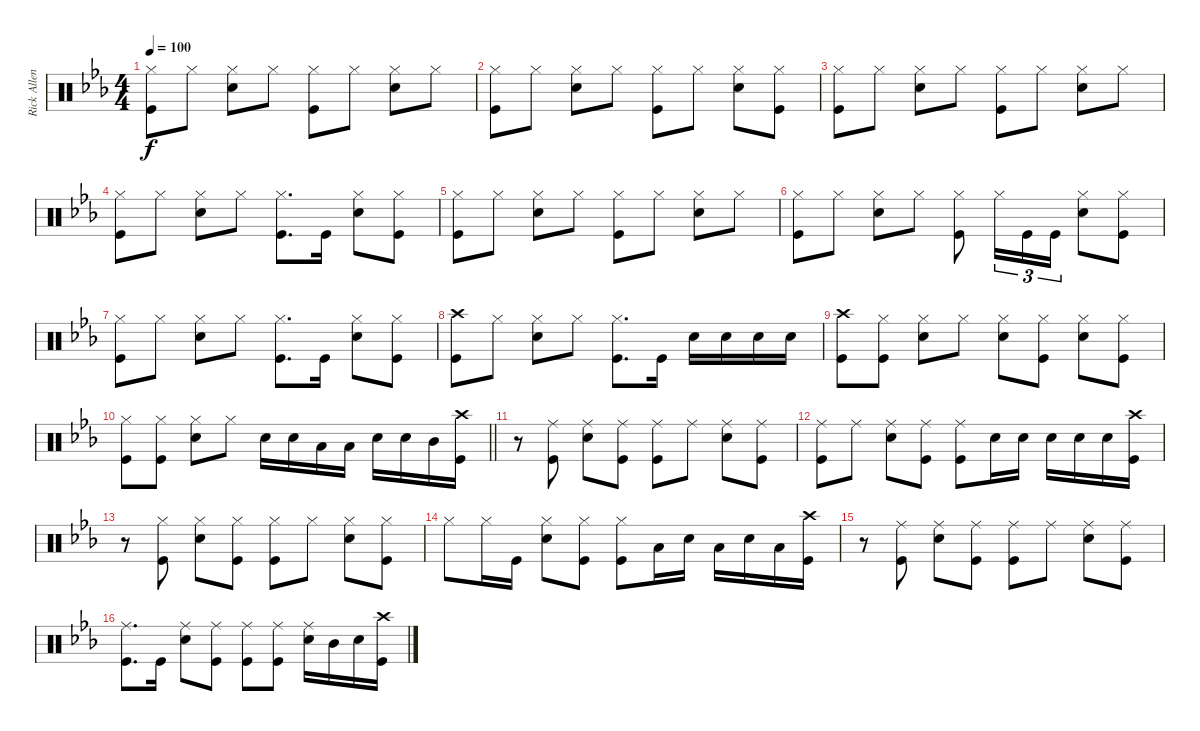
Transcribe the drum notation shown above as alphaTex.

\track ("Rick Allen" "Rick Allen") {instrument percussion}
\staff {score}
\articulation defaults
\ts (4 4)
\tempo 100
\clef neutral
\ks cminor
("Hi-Hat (closed)" "Kick (hit)").8{dy f} "Hi-Hat (closed)".8 ("Hi-Hat (closed)" "Snare (hit) 2").8 "Hi-Hat (closed)".8 ("Hi-Hat (closed)" "Kick (hit)").8 "Hi-Hat (closed)".8 ("Hi-Hat (closed)" "Snare (hit) 2").8 "Hi-Hat (closed)".8 |
("Hi-Hat (closed)" "Kick (hit)").8 "Hi-Hat (closed)".8 ("Hi-Hat (closed)" "Snare (hit) 2").8 "Hi-Hat (closed)".8 ("Hi-Hat (closed)" "Kick (hit)").8 "Hi-Hat (closed)".8 ("Hi-Hat (closed)" "Snare (hit) 2").8 ("Hi-Hat (closed)" "Kick (hit)").8 |
("Hi-Hat (closed)" "Kick (hit)").8 "Hi-Hat (closed)".8 ("Hi-Hat (closed)" "Snare (hit) 2").8 "Hi-Hat (closed)".8 ("Hi-Hat (closed)" "Kick (hit)").8 "Hi-Hat (closed)".8 ("Hi-Hat (closed)" "Snare (hit) 2").8 "Hi-Hat (closed)".8 |
("Hi-Hat (closed)" "Kick (hit)").8 "Hi-Hat (closed)".8 ("Hi-Hat (closed)" "Snare (hit) 2").8 "Hi-Hat (closed)".8 ("Hi-Hat (closed)" "Kick (hit)").8{d} "Kick (hit)".16 ("Hi-Hat (closed)" "Snare (hit) 2").8 ("Hi-Hat (closed)" "Kick (hit)").8 |
("Hi-Hat (closed)" "Kick (hit)").8 "Hi-Hat (closed)".8 ("Hi-Hat (closed)" "Snare (hit) 2").8 "Hi-Hat (closed)".8 ("Hi-Hat (closed)" "Kick (hit)").8 "Hi-Hat (closed)".8 ("Hi-Hat (closed)" "Snare (hit) 2").8 "Hi-Hat (closed)".8 |
("Hi-Hat (closed)" "Kick (hit)").8 "Hi-Hat (closed)".8 ("Hi-Hat (closed)" "Snare (hit) 2").8 "Hi-Hat (closed)".8 ("Hi-Hat (closed)" "Kick (hit)").8 "Hi-Hat (closed)".16{tu (3 2)} "Kick (hit)".16{tu (3 2)} "Kick (hit)".16{tu (3 2)} ("Hi-Hat (closed)" "Snare (hit) 2").8 ("Hi-Hat (closed)" "Kick (hit)").8 |
("Hi-Hat (closed)" "Kick (hit)").8 "Hi-Hat (closed)".8 ("Hi-Hat (closed)" "Snare (hit) 2").8 "Hi-Hat (closed)".8 ("Hi-Hat (closed)" "Kick (hit)").8{d} "Kick (hit)".16 ("Hi-Hat (closed)" "Snare (hit) 2").8 ("Hi-Hat (closed)" "Kick (hit)").8 |
("Crash high (hit)" "Kick (hit)").8 "Hi-Hat (closed)".8 ("Hi-Hat (closed)" "Snare (hit) 2").8 "Hi-Hat (closed)".8 ("Hi-Hat (closed)" "Kick (hit)").8{d} "Kick (hit)".16 "Snare (hit) 2".16 "Snare (hit) 2".16 "Snare (hit) 2".16 "Snare (hit) 2".16 |
("Crash high (hit)" "Kick (hit)").8 ("Hi-Hat (closed)" "Kick (hit)").8 ("Hi-Hat (closed)" "Snare (hit) 2").8 "Hi-Hat (closed)".8 ("Hi-Hat (closed)" "Snare (hit) 2").8 ("Hi-Hat (closed)" "Kick (hit)").8 ("Hi-Hat (closed)" "Snare (hit) 2").8 ("Hi-Hat (closed)" "Kick (hit)").8 |
\barLineRight lightlight
("Hi-Hat (closed)" "Kick (hit)").8 ("Hi-Hat (closed)" "Kick (hit)").8 ("Hi-Hat (closed)" "Snare (hit) 2").8 "Hi-Hat (closed)".8 "Snare (hit) 2".16 "Snare (hit) 2".16 "Low Tom (hit)".16 "Low Tom (hit)".16 "Snare (hit) 2".16 "Snare (hit) 2".16 "Mid Tom (hit)".16 ("Crash high (hit)" "Kick (hit)").16 |
r.8 ("Ride (middle)" "Kick (hit)").8 ("Ride (middle)" "Snare (hit) 2").8 ("Ride (middle)" "Kick (hit)").8 ("Ride (middle)" "Kick (hit)").8 "Ride (middle)".8 ("Ride (middle)" "Snare (hit) 2").8 ("Ride (middle)" "Kick (hit)").8 |
("Ride (middle)" "Kick (hit)").8 "Ride (middle)".8 ("Ride (middle)" "Snare (hit) 2").8 ("Ride (middle)" "Kick (hit)").8 ("Ride (middle)" "Kick (hit)").8 "Snare (hit) 2".16 "Snare (hit) 2".16 "Snare (hit) 2".16 "Snare (hit) 2".16 "Snare (hit) 2".16 ("Crash high (hit)" "Kick (hit)").16 |
r.8 ("Hi-Hat (closed)" "Kick (hit)").8 ("Hi-Hat (closed)" "Snare (hit) 2").8 ("Hi-Hat (closed)" "Kick (hit)").8 ("Hi-Hat (closed)" "Kick (hit)").8 "Hi-Hat (closed)".8 ("Hi-Hat (closed)" "Snare (hit) 2").8 ("Hi-Hat (closed)" "Kick (hit)").8 |
"Hi-Hat (closed)".8 "Hi-Hat (closed)".16 "Kick (hit)".16 ("Hi-Hat (closed)" "Snare (hit) 2").8 ("Hi-Hat (closed)" "Kick (hit)").8 ("Hi-Hat (closed)" "Kick (hit)").8 "Low Tom (hit)".16 "Snare (hit) 2".16 "Low Tom (hit)".16 "Snare (hit) 2".16 "Low Tom (hit)".16 ("Crash high (hit)" "Kick (hit)").16 |
r.8 ("Ride (middle)" "Kick (hit)").8 ("Ride (middle)" "Snare (hit) 2").8 ("Ride (middle)" "Kick (hit)").8 ("Ride (middle)" "Kick (hit)").8 "Ride (middle)".8 ("Ride (middle)" "Snare (hit) 2").8 ("Ride (middle)" "Kick (hit)").8 |
("Ride (middle)" "Kick (hit)").8{d} "Kick (hit)".16 ("Ride (middle)" "Snare (hit) 2").8 ("Ride (middle)" "Kick (hit)").8 ("Ride (middle)" "Kick (hit)").8 ("Ride (middle)" "Kick (hit)").8 ("Ride (middle)" "Snare (hit) 2").16 "Mid Tom (hit)".16 "Snare (hit) 2".16 ("Crash high (hit)" "Kick (hit)").16
